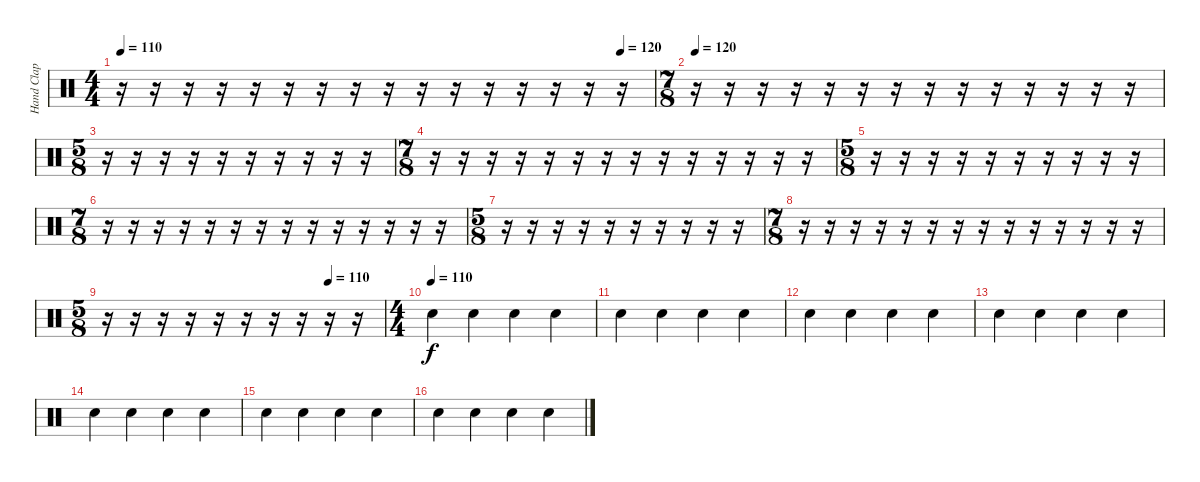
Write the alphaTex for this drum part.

\track ("Hand Clap" "Hand Clap") {instrument percussion}
\staff {score}
\articulation defaults
\ts (4 4)
\tempo 110
\tempo (120 0.9375)
\clef neutral
\ks c
r.16{dy f} r.16 r.16 r.16 r.16 r.16 r.16 r.16 r.16 r.16 r.16 r.16 r.16 r.16 r.16 r.16 |
\ts (7 8)
\tempo 120
r.16 r.16 r.16 r.16 r.16 r.16 r.16 r.16 r.16 r.16 r.16 r.16 r.16 r.16 |
\ts (5 8)
r.16 r.16 r.16 r.16 r.16 r.16 r.16 r.16 r.16 r.16 |
\ts (7 8)
r.16 r.16 r.16 r.16 r.16 r.16 r.16 r.16 r.16 r.16 r.16 r.16 r.16 r.16 |
\ts (5 8)
r.16 r.16 r.16 r.16 r.16 r.16 r.16 r.16 r.16 r.16 |
\ts (7 8)
r.16 r.16 r.16 r.16 r.16 r.16 r.16 r.16 r.16 r.16 r.16 r.16 r.16 r.16 |
\ts (5 8)
r.16 r.16 r.16 r.16 r.16 r.16 r.16 r.16 r.16 r.16 |
\ts (7 8)
r.16 r.16 r.16 r.16 r.16 r.16 r.16 r.16 r.16 r.16 r.16 r.16 r.16 r.16 |
\ts (5 8)
\tempo (110 0.8)
r.16 r.16 r.16 r.16 r.16 r.16 r.16 r.16 r.16 r.16 |
\ts (4 4)
\tempo (110)
"Hand Clap (hit)".4 "Hand Clap (hit)".4 "Hand Clap (hit)".4 "Hand Clap (hit)".4 |
"Hand Clap (hit)".4 "Hand Clap (hit)".4 "Hand Clap (hit)".4 "Hand Clap (hit)".4 |
"Hand Clap (hit)".4 "Hand Clap (hit)".4 "Hand Clap (hit)".4 "Hand Clap (hit)".4 |
"Hand Clap (hit)".4 "Hand Clap (hit)".4 "Hand Clap (hit)".4 "Hand Clap (hit)".4 |
"Hand Clap (hit)".4 "Hand Clap (hit)".4 "Hand Clap (hit)".4 "Hand Clap (hit)".4 |
"Hand Clap (hit)".4 "Hand Clap (hit)".4 "Hand Clap (hit)".4 "Hand Clap (hit)".4 |
"Hand Clap (hit)".4 "Hand Clap (hit)".4 "Hand Clap (hit)".4 "Hand Clap (hit)".4
